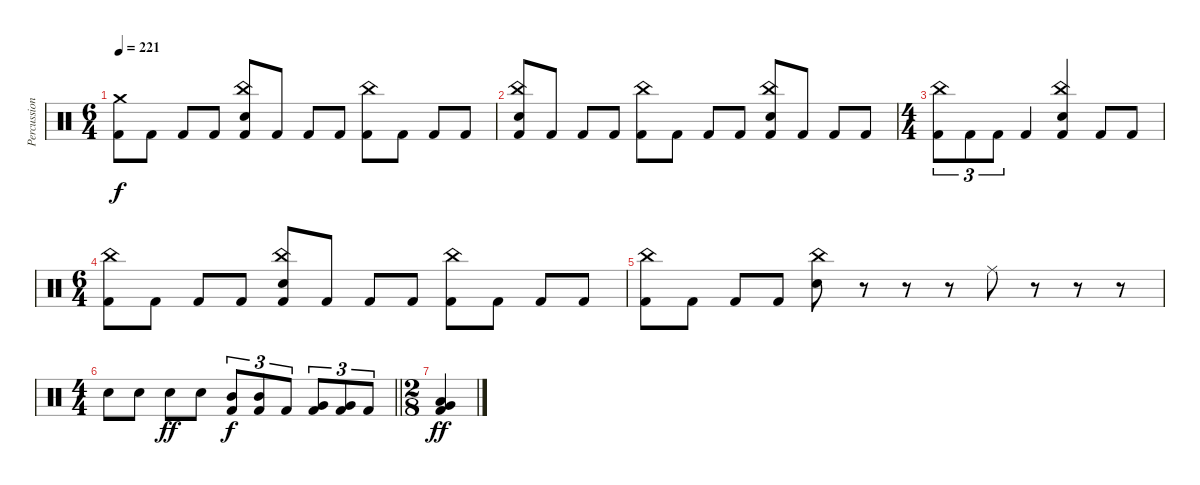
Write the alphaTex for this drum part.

\track ("Percussion" "Percussion") {instrument percussion}
\staff {score}
\articulation defaults
\ts (6 4)
\tempo 221
\clef neutral
\ks c
("Crash medium (hit)" "Kick (hit) 2").8{dy f} "Kick (hit) 2".8 "Kick (hit) 2".8 "Kick (hit) 2".8 ("China (hit)" "Snare (hit) 2" "Kick (hit) 2").8 "Kick (hit) 2".8 "Kick (hit) 2".8 "Kick (hit) 2".8 ("China (hit)" "Kick (hit) 2").8 "Kick (hit) 2".8 "Kick (hit) 2".8 "Kick (hit) 2".8 |
("China (hit)" "Snare (hit) 2" "Kick (hit) 2").8 "Kick (hit) 2".8 "Kick (hit) 2".8 "Kick (hit) 2".8 ("China (hit)" "Kick (hit) 2").8 "Kick (hit) 2".8 "Kick (hit) 2".8 "Kick (hit) 2".8 ("China (hit)" "Snare (hit) 2" "Kick (hit) 2").8 "Kick (hit) 2".8 "Kick (hit) 2".8 "Kick (hit) 2".8 |
\ts (4 4)
("China (hit)" "Kick (hit) 2").8{tu (3 2)} "Kick (hit) 2".8{tu (3 2)} "Kick (hit) 2".8{tu (3 2)} "Kick (hit) 2".4 ("China (hit)" "Snare (hit) 2" "Kick (hit) 2").4 "Kick (hit) 2".8 "Kick (hit) 2".8 |
\ts (6 4)
("China (hit)" "Kick (hit) 2").8 "Kick (hit) 2".8 "Kick (hit) 2".8 "Kick (hit) 2".8 ("China (hit)" "Snare (hit) 2" "Kick (hit) 2").8 "Kick (hit) 2".8 "Kick (hit) 2".8 "Kick (hit) 2".8 ("China (hit)" "Kick (hit) 2").8 "Kick (hit) 2".8 "Kick (hit) 2".8 "Kick (hit) 2".8 |
("China (hit)" "Kick (hit) 2").8 "Kick (hit) 2".8 "Kick (hit) 2".8 "Kick (hit) 2".8 ("China (hit)" "Snare (hit) 2").8 r.8 r.8 r.8 "Ride (middle)".8 r.8 r.8 r.8 |
\ts (4 4)
\barLineRight lightlight "Snare (hit) 2".8 "Snare (hit) 2".8 "Snare (hit) 2".8{dy ff} "Snare (hit) 2".8
("Mid Tom (hit)" "Kick (hit) 2").8{tu (3 2) dy f} ("Mid Tom (hit)" "Kick (hit) 2").8{tu (3 2)} "Kick (hit) 2".8{tu (3 2)} ("Very Low Tom (hit)" "Kick (hit) 2").8{tu (3 2)} ("Very Low Tom (hit)" "Kick (hit) 2").8{tu (3 2)} "Kick (hit) 2".8{tu (3 2)} |
\ts (2 8)
("Very Low Tom (hit)" "Low Floor Tom (hit)" "Kick (hit) 2").4{dy ff}
